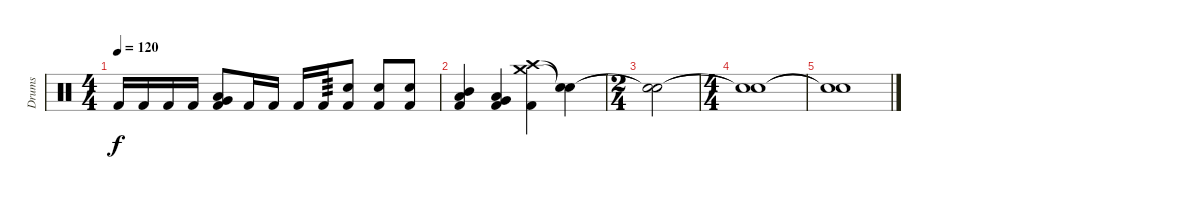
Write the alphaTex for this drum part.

\track ("Drums" "Drums") {instrument percussion}
\staff {score}
\articulation defaults
\ts (4 4)
\tempo 120
\clef neutral
\ks c "Kick (hit) 2".16{dy f} "Kick (hit) 2".16 "Kick (hit) 2".16 "Kick (hit) 2".16
("Low Floor Tom (hit)" "Very Low Tom (hit)" "Kick (hit) 2").8 "Kick (hit) 2".16 "Kick (hit) 2".16 "Kick (hit) 2".16 "Kick (hit) 2".16{tp 3} ("Snare (hit) 2" "Kick (hit) 2").8 ("Snare (hit) 2" "Kick (hit) 2").8 ("Snare (hit) 2" "Kick (hit) 2").8 |
("Low Tom (hit)" "Mid Tom (hit)" "Kick (hit) 2").4 ("Low Floor Tom (hit)" "Very Low Tom (hit)" "Kick (hit) 2").4 ("Crash medium (hit)" "Crash high (hit)" "Kick (hit) 2").4 ("Snare (hit)"{t} "Snare (hit)"{t}).4 |
\ts (2 4)
("Snare (hit)"{t} "Snare (hit)"{t}).2 |
\ts (4 4)
("Snare (hit)"{t} "Snare (hit)"{t}).1 |
("Snare (hit)"{t} "Snare (hit)"{t}).1
